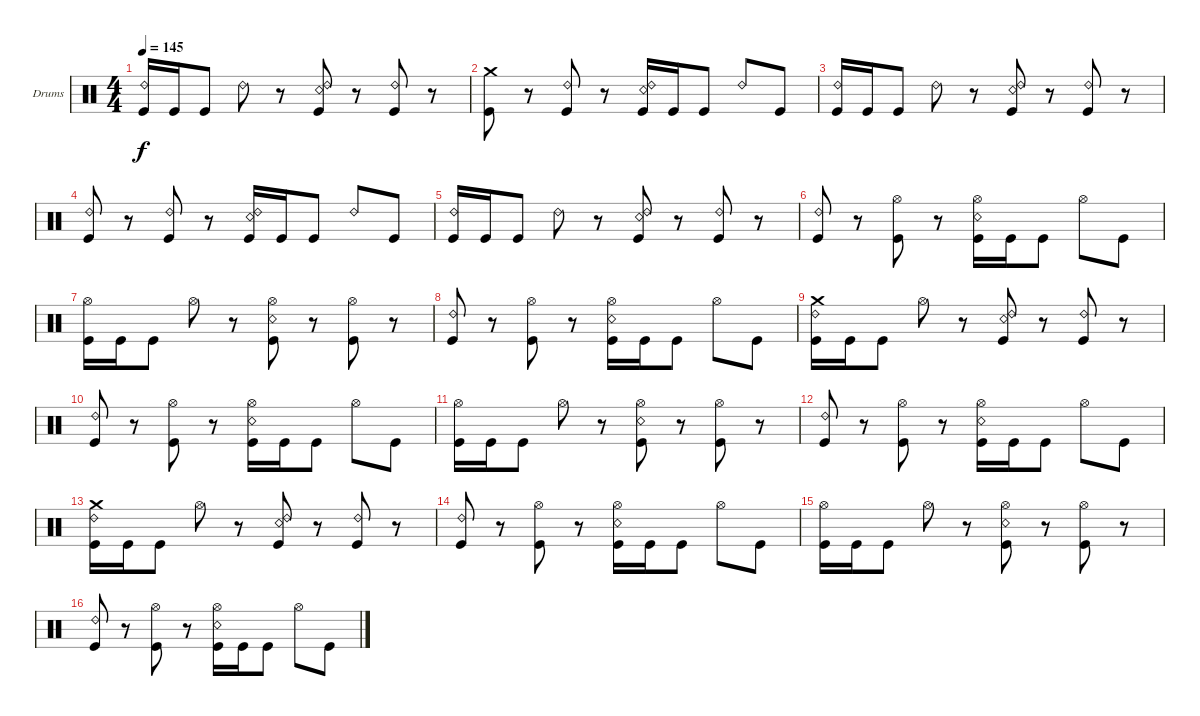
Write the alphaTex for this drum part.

\bracketExtendMode groupsimilarinstruments
\firstSystemTrackNameOrientation horizontal
\otherSystemsTrackNameOrientation horizontal
\track ("Kaleb - Drums" "Drums") {instrument percussion}
\staff {score}
\articulation defaults
\ts (4 4)
\tempo 145
\clef neutral
\ks c
("Kick (hit)" "Ride (bell) 2").16{dy f} "Kick (hit)".16 "Kick (hit)".8 "Ride (bell) 2".8 r.8 ("Kick (hit)" "Ride (bell) 2" "Snare (rim shot)").8 r.8 ("Kick (hit)" "Ride (bell) 2").8 r.8 |
("Kick (hit)" "Crash medium (hit)").8 r.8 ("Kick (hit)" "Ride (bell) 2").8 r.8 ("Kick (hit)" "Ride (bell) 2" "Snare (rim shot)").16 "Kick (hit)".16 "Kick (hit)".8 "Ride (bell) 2".8 "Kick (hit)".8 |
("Kick (hit)" "Ride (bell) 2").16 "Kick (hit)".16 "Kick (hit)".8 "Ride (bell) 2".8 r.8 ("Kick (hit)" "Ride (bell) 2" "Snare (rim shot)").8 r.8 ("Kick (hit)" "Ride (bell) 2").8 r.8 |
("Kick (hit)" "Ride (bell) 2").8 r.8 ("Kick (hit)" "Ride (bell) 2").8 r.8 ("Kick (hit)" "Ride (bell) 2" "Snare (rim shot)").16 "Kick (hit)".16 "Kick (hit)".8 "Ride (bell) 2".8 "Kick (hit)".8 |
("Kick (hit)" "Ride (bell) 2").16 "Kick (hit)".16 "Kick (hit)".8 "Ride (bell) 2".8 r.8 ("Kick (hit)" "Ride (bell) 2" "Snare (rim shot)").8 r.8 ("Kick (hit)" "Ride (bell) 2").8 r.8 |
("Kick (hit)" "Ride (bell) 2").8 r.8 ("Kick (hit)" "Hi-Hat (open)").8 r.8 ("Kick (hit)" "Snare (rim shot)" "Hi-Hat (open)").16 "Kick (hit)".16 "Kick (hit)".8 "Hi-Hat (open)".8 "Kick (hit)".8 |
("Kick (hit)" "Hi-Hat (open)").16 "Kick (hit)".16 "Kick (hit)".8 "Hi-Hat (open)".8 r.8 ("Kick (hit)" "Snare (rim shot)" "Hi-Hat (open)").8 r.8 ("Kick (hit)" "Hi-Hat (open)").8 r.8 |
("Kick (hit)" "Ride (bell) 2").8 r.8 ("Kick (hit)" "Hi-Hat (open)").8 r.8 ("Kick (hit)" "Snare (rim shot)" "Hi-Hat (open)").16 "Kick (hit)".16 "Kick (hit)".8 "Hi-Hat (open)".8 "Kick (hit)".8 |
("Kick (hit)" "Ride (bell) 2" "Crash medium (hit)").16 "Kick (hit)".16 "Kick (hit)".8 "Hi-Hat (open)".8 r.8 ("Kick (hit)" "Ride (bell) 2" "Snare (rim shot)").8 r.8 ("Kick (hit)" "Ride (bell) 2").8 r.8 |
("Kick (hit)" "Ride (bell) 2").8 r.8 ("Kick (hit)" "Hi-Hat (open)").8 r.8 ("Kick (hit)" "Snare (rim shot)" "Hi-Hat (open)").16 "Kick (hit)".16 "Kick (hit)".8 "Hi-Hat (open)".8 "Kick (hit)".8 |
("Kick (hit)" "Hi-Hat (open)").16 "Kick (hit)".16 "Kick (hit)".8 "Hi-Hat (open)".8 r.8 ("Kick (hit)" "Snare (rim shot)" "Hi-Hat (open)").8 r.8 ("Kick (hit)" "Hi-Hat (open)").8 r.8 |
("Kick (hit)" "Ride (bell) 2").8 r.8 ("Kick (hit)" "Hi-Hat (open)").8 r.8 ("Kick (hit)" "Snare (rim shot)" "Hi-Hat (open)").16 "Kick (hit)".16 "Kick (hit)".8 "Hi-Hat (open)".8 "Kick (hit)".8 |
("Kick (hit)" "Ride (bell) 2" "Crash medium (hit)").16 "Kick (hit)".16 "Kick (hit)".8 "Hi-Hat (open)".8 r.8 ("Kick (hit)" "Ride (bell) 2" "Snare (rim shot)").8 r.8 ("Kick (hit)" "Ride (bell) 2").8 r.8 |
("Kick (hit)" "Ride (bell) 2").8 r.8 ("Kick (hit)" "Hi-Hat (open)").8 r.8 ("Kick (hit)" "Snare (rim shot)" "Hi-Hat (open)").16 "Kick (hit)".16 "Kick (hit)".8 "Hi-Hat (open)".8 "Kick (hit)".8 |
("Kick (hit)" "Hi-Hat (open)").16 "Kick (hit)".16 "Kick (hit)".8 "Hi-Hat (open)".8 r.8 ("Kick (hit)" "Snare (rim shot)" "Hi-Hat (open)").8 r.8 ("Kick (hit)" "Hi-Hat (open)").8 r.8 |
("Kick (hit)" "Ride (bell) 2").8 r.8 ("Kick (hit)" "Hi-Hat (open)").8 r.8 ("Kick (hit)" "Snare (rim shot)" "Hi-Hat (open)").16 "Kick (hit)".16 "Kick (hit)".8 "Hi-Hat (open)".8 "Kick (hit)".8
